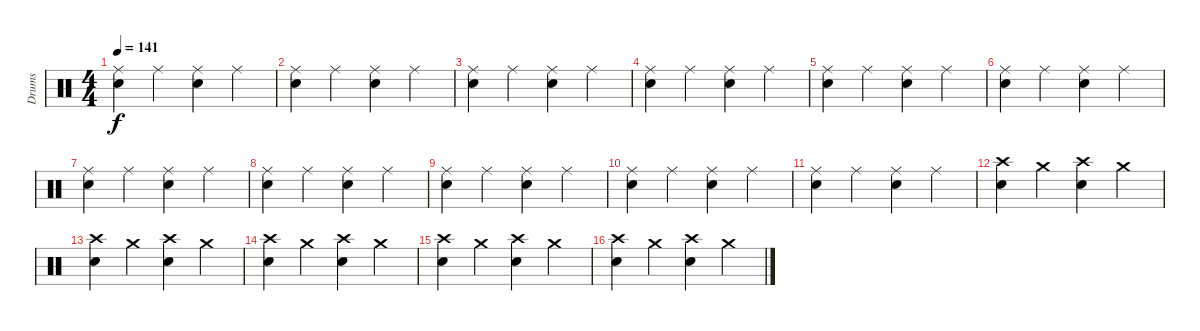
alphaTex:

\track ("Drums" "Drums") {instrument percussion}
\staff {score}
\articulation defaults
\ts (4 4)
\tempo 141
\clef neutral
\ks c
("Ride (middle)" "Snare (hit) 2").4{dy f} "Ride (middle)".4 ("Ride (middle)" "Snare (hit) 2").4 "Ride (middle)".4 |
("Ride (middle)" "Snare (hit) 2").4 "Ride (middle)".4 ("Ride (middle)" "Snare (hit) 2").4 "Ride (middle)".4 |
("Ride (middle)" "Snare (hit) 2").4 "Ride (middle)".4 ("Ride (middle)" "Snare (hit) 2").4 "Ride (middle)".4 |
("Ride (middle)" "Snare (hit) 2").4 "Ride (middle)".4 ("Ride (middle)" "Snare (hit) 2").4 "Ride (middle)".4 |
("Ride (middle)" "Snare (hit) 2").4 "Ride (middle)".4 ("Ride (middle)" "Snare (hit) 2").4 "Ride (middle)".4 |
("Ride (middle)" "Snare (hit) 2").4 "Ride (middle)".4 ("Ride (middle)" "Snare (hit) 2").4 "Ride (middle)".4 |
("Ride (middle)" "Snare (hit) 2").4 "Ride (middle)".4 ("Ride (middle)" "Snare (hit) 2").4 "Ride (middle)".4 |
("Ride (middle)" "Snare (hit) 2").4 "Ride (middle)".4 ("Ride (middle)" "Snare (hit) 2").4 "Ride (middle)".4 |
("Ride (middle)" "Snare (hit) 2").4 "Ride (middle)".4 ("Ride (middle)" "Snare (hit) 2").4 "Ride (middle)".4 |
("Ride (middle)" "Snare (hit) 2").4 "Ride (middle)".4 ("Ride (middle)" "Snare (hit) 2").4 "Ride (middle)".4 |
("Ride (middle)" "Snare (hit) 2").4 "Ride (middle)".4 ("Ride (middle)" "Snare (hit) 2").4 "Ride (middle)".4 |
("Crash high (hit)" "Snare (hit) 2").4 "Crash medium (hit)".4 ("Crash high (hit)" "Snare (hit) 2").4 "Crash medium (hit)".4 |
("Crash high (hit)" "Snare (hit) 2").4 "Crash medium (hit)".4 ("Crash high (hit)" "Snare (hit) 2").4 "Crash medium (hit)".4 |
("Crash high (hit)" "Snare (hit) 2").4 "Crash medium (hit)".4 ("Crash high (hit)" "Snare (hit) 2").4 "Crash medium (hit)".4 |
("Crash high (hit)" "Snare (hit) 2").4 "Crash medium (hit)".4 ("Crash high (hit)" "Snare (hit) 2").4 "Crash medium (hit)".4 |
("Crash high (hit)" "Snare (hit) 2").4 "Crash medium (hit)".4 ("Crash high (hit)" "Snare (hit) 2").4 "Crash medium (hit)".4
